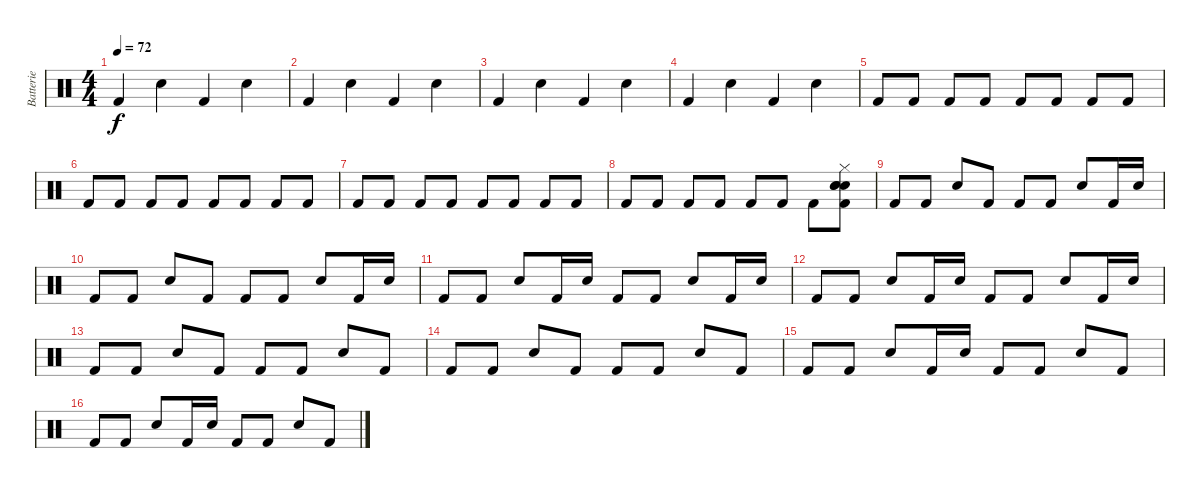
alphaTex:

\track ("Batterie" "Batterie") {instrument percussion}
\staff {score}
\articulation defaults
\ts (4 4)
\tempo 72
\clef neutral
\ks c "Kick (hit) 2".4{dy f} "Electric Snare (hit)".4 "Kick (hit) 2".4 "Electric Snare (hit)".4
|
"Kick (hit) 2".4 "Electric Snare (hit)".4 "Kick (hit) 2".4 "Electric Snare (hit)".4 |
"Kick (hit) 2".4 "Electric Snare (hit)".4 "Kick (hit) 2".4 "Electric Snare (hit)".4 |
"Kick (hit) 2".4 "Electric Snare (hit)".4 "Kick (hit) 2".4 "Electric Snare (hit)".4 |
"Kick (hit) 2".8 "Kick (hit) 2".8 "Kick (hit) 2".8 "Kick (hit) 2".8 "Kick (hit) 2".8 "Kick (hit) 2".8 "Kick (hit) 2".8 "Kick (hit) 2".8 |
"Kick (hit) 2".8 "Kick (hit) 2".8 "Kick (hit) 2".8 "Kick (hit) 2".8 "Kick (hit) 2".8 "Kick (hit) 2".8 "Kick (hit) 2".8 "Kick (hit) 2".8 |
"Kick (hit) 2".8 "Kick (hit) 2".8 "Kick (hit) 2".8 "Kick (hit) 2".8 "Kick (hit) 2".8 "Kick (hit) 2".8 "Kick (hit) 2".8 "Kick (hit) 2".8 |
"Kick (hit) 2".8 "Kick (hit) 2".8 "Kick (hit) 2".8 "Kick (hit) 2".8 "Kick (hit) 2".8 "Kick (hit) 2".8 "Kick (hit) 2".8 ("Electric Snare (hit)" "Electric Snare (hit)" "Electric Snare (hit)" "Kick (hit) 2" "Hi-Hat (closed)").8 |
"Kick (hit) 2".8 "Kick (hit) 2".8 "Electric Snare (hit)".8 "Kick (hit) 2".8 "Kick (hit) 2".8 "Kick (hit) 2".8 "Electric Snare (hit)".8 "Kick (hit) 2".16 "Electric Snare (hit)".16 |
"Kick (hit) 2".8 "Kick (hit) 2".8 "Electric Snare (hit)".8 "Kick (hit) 2".8 "Kick (hit) 2".8 "Kick (hit) 2".8 "Electric Snare (hit)".8 "Kick (hit) 2".16 "Electric Snare (hit)".16 |
"Kick (hit) 2".8 "Kick (hit) 2".8 "Electric Snare (hit)".8 "Kick (hit) 2".16 "Electric Snare (hit)".16 "Kick (hit) 2".8 "Kick (hit) 2".8 "Electric Snare (hit)".8 "Kick (hit) 2".16 "Electric Snare (hit)".16 |
"Kick (hit) 2".8 "Kick (hit) 2".8 "Electric Snare (hit)".8 "Kick (hit) 2".16 "Electric Snare (hit)".16 "Kick (hit) 2".8 "Kick (hit) 2".8 "Electric Snare (hit)".8 "Kick (hit) 2".16 "Electric Snare (hit)".16 |
"Kick (hit) 2".8 "Kick (hit) 2".8 "Electric Snare (hit)".8 "Kick (hit) 2".8 "Kick (hit) 2".8 "Kick (hit) 2".8 "Electric Snare (hit)".8 "Kick (hit) 2".8 |
"Kick (hit) 2".8 "Kick (hit) 2".8 "Electric Snare (hit)".8 "Kick (hit) 2".8 "Kick (hit) 2".8 "Kick (hit) 2".8 "Electric Snare (hit)".8 "Kick (hit) 2".8 |
"Kick (hit) 2".8 "Kick (hit) 2".8 "Electric Snare (hit)".8 "Kick (hit) 2".16 "Electric Snare (hit)".16 "Kick (hit) 2".8 "Kick (hit) 2".8 "Electric Snare (hit)".8 "Kick (hit) 2".8 |
"Kick (hit) 2".8 "Kick (hit) 2".8 "Electric Snare (hit)".8 "Kick (hit) 2".16 "Electric Snare (hit)".16 "Kick (hit) 2".8 "Kick (hit) 2".8 "Electric Snare (hit)".8 "Kick (hit) 2".8
